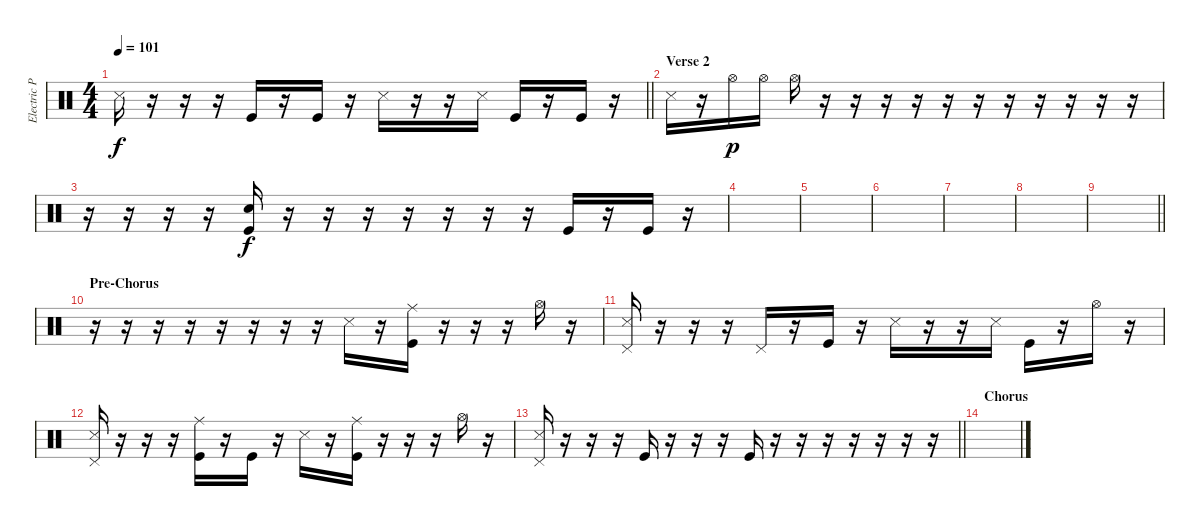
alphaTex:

\track ("Electric Percussion" "Electric P") {instrument percussion}
\staff {score}
\articulation defaults
\ts (4 4)
\tempo 101
\clef neutral
\barLineRight lightlight
\ks c "Snare (side stick) 3".16{dy f}
r.16 r.16 r.16 "Kick (hit)".16 r.16 "Kick (hit)".16 r.16 "Snare (side stick) 3".16 r.16 r.16 "Snare (side stick) 3".16 "Kick (hit)".16 r.16 "Kick (hit)".16 r.16 |
\section ("" "Verse 2")
"Snare (side stick) 3".16 r.16 "Hi-Hat (open)".16{dy p} "Hi-Hat (open)".16 "Hi-Hat (open)".16 r.16 r.16 r.16 r.16 r.16 r.16 r.16 r.16 r.16 r.16 r.16 |
r.16 r.16 r.16 r.16 ("Metronome (bell)" "Kick (hit)").16{dy f} r.16 r.16 r.16 r.16 r.16 r.16 r.16 "Kick (hit)".16 r.16 "Kick (hit)".16 r.16 |
|
|
|
|
|
\barLineRight lightlight
|
\section ("" "Pre-Chorus")
r.16 r.16 r.16 r.16 r.16 r.16 r.16 r.16 "Snare (side stick) 3".16 r.16 ("Ride (middle)" "Kick (hit)").16 r.16 r.16 r.16 "Hi-Hat (open)".16 r.16 |
("Pedal Hi-Hat (hit)" "Snare (side stick) 3").16 r.16 r.16 r.16 "Pedal Hi-Hat (hit)".16 r.16 "Kick (hit)".16 r.16 "Snare (side stick) 3".16 r.16 r.16 "Snare (side stick) 3".16 "Kick (hit)".16 r.16 "Hi-Hat (open)".16 r.16 |
("Pedal Hi-Hat (hit)" "Snare (side stick) 3").16 r.16 r.16 r.16 ("Ride (middle)" "Kick (hit)").16 r.16 "Kick (hit)".16 r.16 "Snare (side stick) 3".16 r.16 ("Ride (middle)" "Kick (hit)").16 r.16 r.16 r.16 "Hi-Hat (open)".16 r.16 |
\barLineRight lightlight
("Pedal Hi-Hat (hit)" "Snare (side stick) 3").16 r.16 r.16 r.16 "Kick (hit)".16 r.16 r.16 r.16 "Kick (hit)".16 r.16 r.16 r.16 r.16 r.16 r.16 r.16 |
\section ("" "Chorus")
